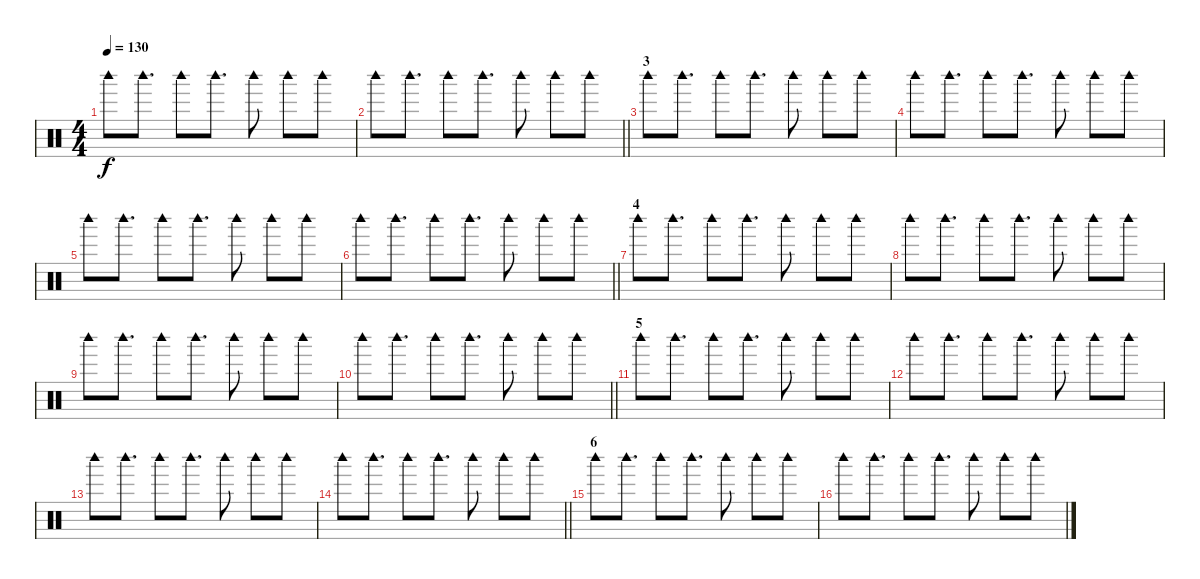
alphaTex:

\track "" {instrument percussion}
\staff {score}
\articulation defaults
\ts (4 4)
\tempo 130
\clef neutral
\ks c "Woodblock high (hit)".8{dy f} "Woodblock high (hit)".8{d} "Woodblock high (hit)".8 "Woodblock high (hit)".8{d} "Woodblock high (hit)".8 "Woodblock high (hit)".8 "Woodblock high (hit)".8
|
\barLineRight lightlight "Woodblock high (hit)".8 "Woodblock high (hit)".8{d} "Woodblock high (hit)".8 "Woodblock high (hit)".8{d} "Woodblock high (hit)".8 "Woodblock high (hit)".8 "Woodblock high (hit)".8
|
\section ("" "3")
"Woodblock high (hit)".8 "Woodblock high (hit)".8{d} "Woodblock high (hit)".8 "Woodblock high (hit)".8{d} "Woodblock high (hit)".8 "Woodblock high (hit)".8 "Woodblock high (hit)".8 |
"Woodblock high (hit)".8 "Woodblock high (hit)".8{d} "Woodblock high (hit)".8 "Woodblock high (hit)".8{d} "Woodblock high (hit)".8 "Woodblock high (hit)".8 "Woodblock high (hit)".8 |
"Woodblock high (hit)".8 "Woodblock high (hit)".8{d} "Woodblock high (hit)".8 "Woodblock high (hit)".8{d} "Woodblock high (hit)".8 "Woodblock high (hit)".8 "Woodblock high (hit)".8 |
\barLineRight lightlight "Woodblock high (hit)".8 "Woodblock high (hit)".8{d} "Woodblock high (hit)".8 "Woodblock high (hit)".8{d} "Woodblock high (hit)".8 "Woodblock high (hit)".8 "Woodblock high (hit)".8
|
\section ("" "4")
"Woodblock high (hit)".8 "Woodblock high (hit)".8{d} "Woodblock high (hit)".8 "Woodblock high (hit)".8{d} "Woodblock high (hit)".8 "Woodblock high (hit)".8 "Woodblock high (hit)".8 |
"Woodblock high (hit)".8 "Woodblock high (hit)".8{d} "Woodblock high (hit)".8 "Woodblock high (hit)".8{d} "Woodblock high (hit)".8 "Woodblock high (hit)".8 "Woodblock high (hit)".8 |
"Woodblock high (hit)".8 "Woodblock high (hit)".8{d} "Woodblock high (hit)".8 "Woodblock high (hit)".8{d} "Woodblock high (hit)".8 "Woodblock high (hit)".8 "Woodblock high (hit)".8 |
\barLineRight lightlight "Woodblock high (hit)".8 "Woodblock high (hit)".8{d} "Woodblock high (hit)".8 "Woodblock high (hit)".8{d} "Woodblock high (hit)".8 "Woodblock high (hit)".8 "Woodblock high (hit)".8
|
\section ("" "5")
"Woodblock high (hit)".8 "Woodblock high (hit)".8{d} "Woodblock high (hit)".8 "Woodblock high (hit)".8{d} "Woodblock high (hit)".8 "Woodblock high (hit)".8 "Woodblock high (hit)".8 |
"Woodblock high (hit)".8 "Woodblock high (hit)".8{d} "Woodblock high (hit)".8 "Woodblock high (hit)".8{d} "Woodblock high (hit)".8 "Woodblock high (hit)".8 "Woodblock high (hit)".8 |
"Woodblock high (hit)".8 "Woodblock high (hit)".8{d} "Woodblock high (hit)".8 "Woodblock high (hit)".8{d} "Woodblock high (hit)".8 "Woodblock high (hit)".8 "Woodblock high (hit)".8 |
\barLineRight lightlight "Woodblock high (hit)".8 "Woodblock high (hit)".8{d} "Woodblock high (hit)".8 "Woodblock high (hit)".8{d} "Woodblock high (hit)".8 "Woodblock high (hit)".8 "Woodblock high (hit)".8
|
\section ("" "6")
"Woodblock high (hit)".8 "Woodblock high (hit)".8{d} "Woodblock high (hit)".8 "Woodblock high (hit)".8{d} "Woodblock high (hit)".8 "Woodblock high (hit)".8 "Woodblock high (hit)".8 |
"Woodblock high (hit)".8 "Woodblock high (hit)".8{d} "Woodblock high (hit)".8 "Woodblock high (hit)".8{d} "Woodblock high (hit)".8 "Woodblock high (hit)".8 "Woodblock high (hit)".8
